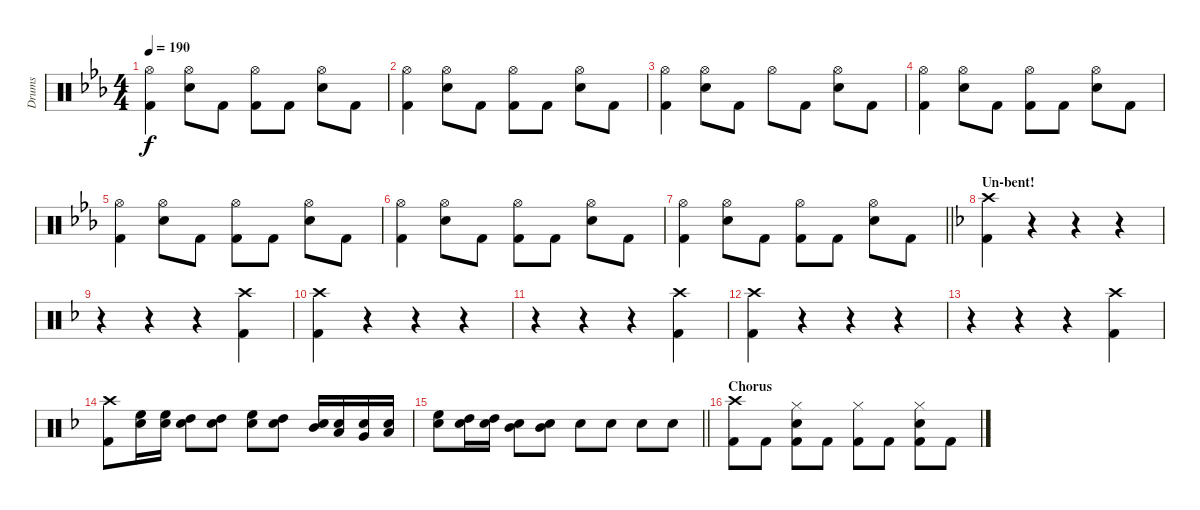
\track ("Drums" "Drums") {instrument percussion}
\staff {score}
\articulation defaults
\ts (4 4)
\tempo 190
\clef neutral
\ks cminor
("Hi-Hat (open)" "Kick (hit) 2").4{dy f} ("Hi-Hat (open)" "Electric Snare (hit)").8 "Kick (hit) 2".8 ("Hi-Hat (open)" "Kick (hit) 2").8 "Kick (hit) 2".8 ("Hi-Hat (open)" "Electric Snare (hit)").8 "Kick (hit) 2".8 |
("Hi-Hat (open)" "Kick (hit) 2").4 ("Hi-Hat (open)" "Electric Snare (hit)").8 "Kick (hit) 2".8 ("Hi-Hat (open)" "Kick (hit) 2").8 "Kick (hit) 2".8 ("Hi-Hat (open)" "Electric Snare (hit)").8 "Kick (hit) 2".8 |
("Hi-Hat (open)" "Kick (hit) 2").4 ("Hi-Hat (open)" "Electric Snare (hit)").8 "Kick (hit) 2".8 "Hi-Hat (open)".8 "Kick (hit) 2".8 ("Hi-Hat (open)" "Electric Snare (hit)").8 "Kick (hit) 2".8 |
("Hi-Hat (open)" "Kick (hit) 2").4 ("Hi-Hat (open)" "Electric Snare (hit)").8 "Kick (hit) 2".8 ("Hi-Hat (open)" "Kick (hit) 2").8 "Kick (hit) 2".8 ("Hi-Hat (open)" "Electric Snare (hit)").8 "Kick (hit) 2".8 |
("Hi-Hat (open)" "Kick (hit) 2").4 ("Hi-Hat (open)" "Electric Snare (hit)").8 "Kick (hit) 2".8 ("Hi-Hat (open)" "Kick (hit) 2").8 "Kick (hit) 2".8 ("Hi-Hat (open)" "Electric Snare (hit)").8 "Kick (hit) 2".8 |
("Hi-Hat (open)" "Kick (hit) 2").4 ("Hi-Hat (open)" "Electric Snare (hit)").8 "Kick (hit) 2".8 ("Hi-Hat (open)" "Kick (hit) 2").8 "Kick (hit) 2".8 ("Hi-Hat (open)" "Electric Snare (hit)").8 "Kick (hit) 2".8 |
\barLineRight lightlight
("Hi-Hat (open)" "Kick (hit) 2").4 ("Hi-Hat (open)" "Electric Snare (hit)").8 "Kick (hit) 2".8 ("Hi-Hat (open)" "Kick (hit) 2").8 "Kick (hit) 2".8 ("Hi-Hat (open)" "Electric Snare (hit)").8 "Kick (hit) 2".8 |
\section ("" "Un-bent!")
\ks dminor
("Crash high (hit)" "Kick (hit) 2").4 r.4 r.4 r.4 |
r.4 r.4 r.4 ("Crash high (hit)" "Kick (hit) 2").4 |
("Crash high (hit)" "Kick (hit) 2").4 r.4 r.4 r.4 |
r.4 r.4 r.4 ("Crash high (hit)" "Kick (hit) 2").4 |
("Crash high (hit)" "Kick (hit) 2").4 r.4 r.4 r.4 |
r.4 r.4 r.4 ("Crash high (hit)" "Kick (hit) 2").4 |
("Crash high (hit)" "Kick (hit) 2").8 ("Electric Snare (hit)" "High Floor Tom (hit)").16 ("Electric Snare (hit)" "High Floor Tom (hit)").16 ("Electric Snare (hit)" "High Tom (hit)").8 ("Electric Snare (hit)" "High Tom (hit)").8 ("Electric Snare (hit)" "High Floor Tom (hit)").8 ("Electric Snare (hit)" "High Tom (hit)").8 ("Electric Snare (hit)" "Mid Tom (hit)").16 ("Electric Snare (hit)" "Low Tom (hit)").16 ("Electric Snare (hit)" "Very Low Tom (hit)").16 ("Electric Snare (hit)" "Low Floor Tom (hit)").16 |
\barLineRight lightlight
("Electric Snare (hit)" "High Floor Tom (hit)").8 ("Electric Snare (hit)" "High Tom (hit)").16 ("Electric Snare (hit)" "High Tom (hit)").16 ("Electric Snare (hit)" "Mid Tom (hit)").8 ("Electric Snare (hit)" "Mid Tom (hit)").8 "Electric Snare (hit)".8 "Electric Snare (hit)".8 "Electric Snare (hit)".8 "Electric Snare (hit)".8 |
\section ("" "Chorus")
("Crash high (hit)" "Kick (hit) 2").8 "Kick (hit) 2".8 ("Hi-Hat (closed)" "Electric Snare (hit)" "Kick (hit) 2").8 "Kick (hit) 2".8 ("Hi-Hat (closed)" "Kick (hit) 2").8 "Kick (hit) 2".8 ("Hi-Hat (closed)" "Electric Snare (hit)" "Kick (hit) 2").8 "Kick (hit) 2".8
